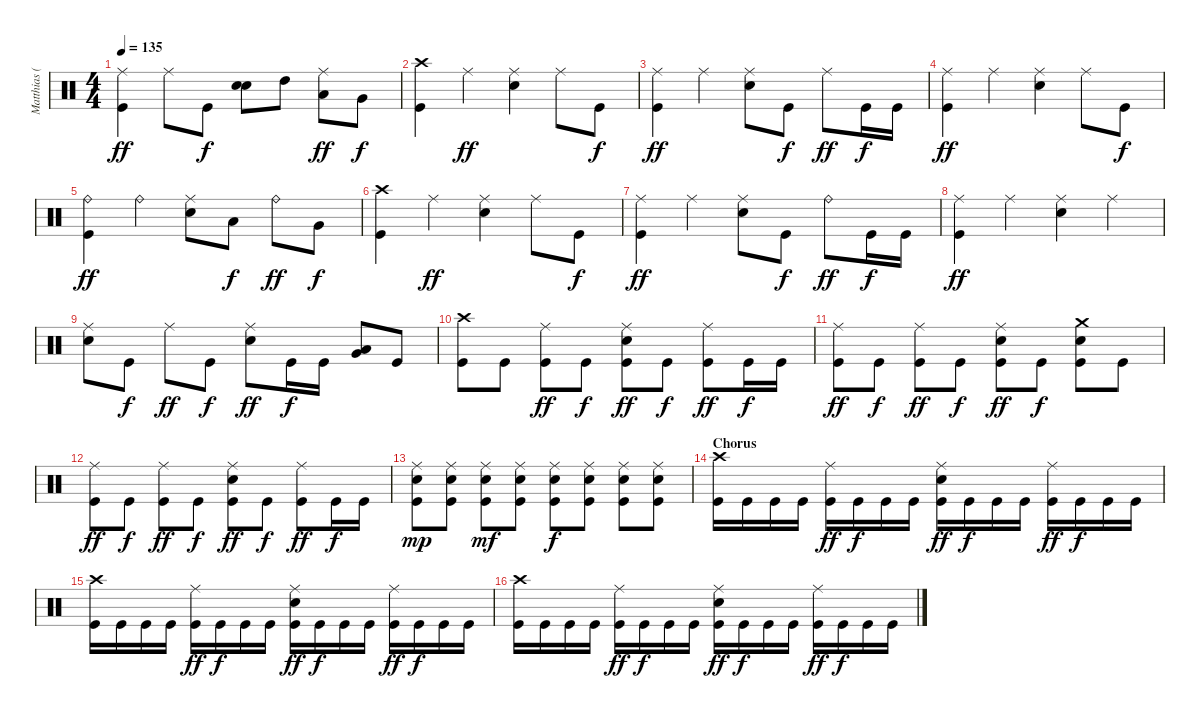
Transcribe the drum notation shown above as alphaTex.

\track ("Matthias (Drums)" "Matthias (") {instrument percussion}
\staff {score}
\articulation defaults
\ts (4 4)
\tempo 135
\clef neutral
\ks c
("Ride (middle)" "Kick (hit)").4{dy ff} "Ride (middle)".8 "Kick (hit)".8{dy f} ("Electric Snare (hit)" "Electric Snare (hit)").8{bu 120} "High Tom (hit)".8 ("Ride (middle)" "Low Tom (hit)").8{dy ff} "Very Low Tom (hit)".8{dy f} |
("Crash high (hit)" "Kick (hit)").4 "Ride (middle)".4{dy ff} ("Ride (middle)" "Electric Snare (hit)").4 "Ride (middle)".8 "Kick (hit)".8{dy f} |
("Ride (middle)" "Kick (hit)").4{dy ff} "Ride (middle)".4 ("Ride (middle)" "Electric Snare (hit)").8 "Kick (hit)".8{dy f} "Ride (middle)".8{dy ff} "Kick (hit)".16{dy f} "Kick (hit)".16 |
("Ride (middle)" "Kick (hit)").4{dy ff} "Ride (middle)".4 ("Ride (middle)" "Electric Snare (hit)").4 "Ride (middle)".8 "Kick (hit)".8{dy f} |
("Ride (bell)" "Kick (hit)").4{dy ff} "Ride (bell)".4 ("Ride (middle)" "Electric Snare (hit)").8 "Low Tom (hit)".8{dy f} "Ride (bell)".8{dy ff} "Very Low Tom (hit)".8{dy f} |
("Crash high (hit)" "Kick (hit)").4 "Ride (middle)".4{dy ff} ("Ride (middle)" "Electric Snare (hit)").4 "Ride (middle)".8 "Kick (hit)".8{dy f} |
("Ride (middle)" "Kick (hit)").4{dy ff} "Ride (middle)".4 ("Ride (middle)" "Electric Snare (hit)").8 "Kick (hit)".8{dy f} "Ride (bell)".8{dy ff} "Kick (hit)".16{dy f} "Kick (hit)".16 |
("Ride (middle)" "Kick (hit)").4{dy ff} "Ride (middle)".4 ("Ride (middle)" "Electric Snare (hit)").4 "Ride (middle)".4 |
("Ride (middle)" "Electric Snare (hit)").8 "Kick (hit)".8{dy f} "Ride (middle)".8{dy ff} "Kick (hit)".8{dy f} ("Ride (middle)" "Electric Snare (hit)").8{dy ff} "Kick (hit)".16{dy f} "Kick (hit)".16 ("Very Low Tom (hit)" "Low Tom (hit)").8{bu 120} "Kick (hit)".8 |
("Crash high (hit)" "Kick (hit)").8 "Kick (hit)".8 ("Ride (middle)" "Kick (hit)").8{dy ff} "Kick (hit)".8{dy f} ("Ride (middle)" "Electric Snare (hit)" "Kick (hit)").8{dy ff} "Kick (hit)".8{dy f} ("Ride (middle)" "Kick (hit)").8{dy ff} "Kick (hit)".16{dy f} "Kick (hit)".16 |
("Ride (middle)" "Kick (hit)").8{dy ff} "Kick (hit)".8{dy f} ("Ride (middle)" "Kick (hit)").8{dy ff} "Kick (hit)".8{dy f} ("Ride (middle)" "Electric Snare (hit)" "Kick (hit)").8{dy ff} "Kick (hit)".8{dy f} ("Crash medium (hit)" "Electric Snare (hit)" "Kick (hit)").8 "Kick (hit)".8 |
("Ride (middle)" "Kick (hit)").8{dy ff} "Kick (hit)".8{dy f} ("Ride (middle)" "Kick (hit)").8{dy ff} "Kick (hit)".8{dy f} ("Ride (middle)" "Electric Snare (hit)" "Kick (hit)").8{dy ff} "Kick (hit)".8{dy f} ("Ride (middle)" "Kick (hit)").8{dy ff} "Kick (hit)".16{dy f} "Kick (hit)".16 |
("Ride (middle)" "Electric Snare (hit)" "Kick (hit)").8{dy mp} ("Ride (middle)" "Electric Snare (hit)" "Kick (hit)").8 ("Ride (middle)" "Electric Snare (hit)" "Kick (hit)").8{dy mf} ("Ride (middle)" "Electric Snare (hit)" "Kick (hit)").8 ("Ride (middle)" "Electric Snare (hit)" "Kick (hit)").8{dy f} ("Ride (middle)" "Electric Snare (hit)" "Kick (hit)").8 ("Ride (middle)" "Electric Snare (hit)" "Kick (hit)").8 ("Ride (middle)" "Electric Snare (hit)" "Kick (hit)").8 |
\section ("" "Chorus")
("Crash high (hit)" "Kick (hit)").16 "Kick (hit)".16 "Kick (hit)".16 "Kick (hit)".16 ("Ride (middle)" "Kick (hit)").16{dy ff} "Kick (hit)".16{dy f} "Kick (hit)".16 "Kick (hit)".16 ("Ride (middle)" "Electric Snare (hit)" "Kick (hit)").16{dy ff} "Kick (hit)".16{dy f} "Kick (hit)".16 "Kick (hit)".16 ("Ride (middle)" "Kick (hit)").16{dy ff} "Kick (hit)".16{dy f} "Kick (hit)".16 "Kick (hit)".16 |
("Crash high (hit)" "Kick (hit)").16 "Kick (hit)".16 "Kick (hit)".16 "Kick (hit)".16 ("Ride (middle)" "Kick (hit)").16{dy ff} "Kick (hit)".16{dy f} "Kick (hit)".16 "Kick (hit)".16 ("Ride (middle)" "Electric Snare (hit)" "Kick (hit)").16{dy ff} "Kick (hit)".16{dy f} "Kick (hit)".16 "Kick (hit)".16 ("Ride (middle)" "Kick (hit)").16{dy ff} "Kick (hit)".16{dy f} "Kick (hit)".16 "Kick (hit)".16 |
("Crash high (hit)" "Kick (hit)").16 "Kick (hit)".16 "Kick (hit)".16 "Kick (hit)".16 ("Ride (middle)" "Kick (hit)").16{dy ff} "Kick (hit)".16{dy f} "Kick (hit)".16 "Kick (hit)".16 ("Ride (middle)" "Electric Snare (hit)" "Kick (hit)").16{dy ff} "Kick (hit)".16{dy f} "Kick (hit)".16 "Kick (hit)".16 ("Ride (middle)" "Kick (hit)").16{dy ff} "Kick (hit)".16{dy f} "Kick (hit)".16 "Kick (hit)".16
